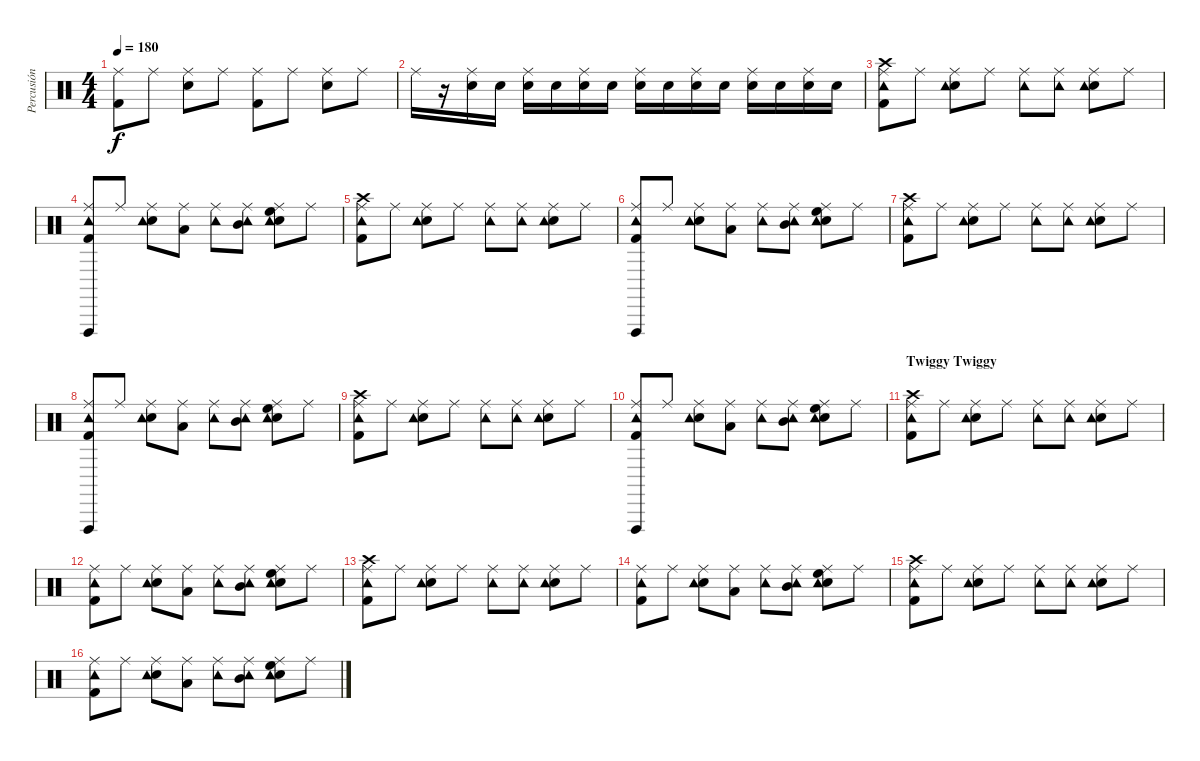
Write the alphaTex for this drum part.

\track ("Percusión" "Percusión") {instrument percussion}
\staff {score}
\articulation defaults
\ts (4 4)
\tempo 180
\clef neutral
\ks c
("Kick (hit) 2" "Ride (middle)").8{dy f} "Ride (middle)".8 ("Electric Snare (hit)" "Ride (middle)").8 "Ride (middle)".8 ("Kick (hit) 2" "Ride (middle)").8 "Ride (middle)".8 ("Electric Snare (hit)" "Ride (middle)").8 "Ride (middle)".8 |
"Ride (middle)".16 r.16 ("Ride (middle)" "Electric Snare (hit)").16 "Electric Snare (hit)".16 ("Ride (middle)" "Electric Snare (hit)").16 "Electric Snare (hit)".16 ("Ride (middle)" "Electric Snare (hit)").16 "Electric Snare (hit)".16 ("Ride (middle)" "Electric Snare (hit)").16 "Electric Snare (hit)".16 ("Ride (middle)" "Electric Snare (hit)").16 "Electric Snare (hit)".16 ("Ride (middle)" "Electric Snare (hit)").16 "Electric Snare (hit)".16 ("Ride (middle)" "Electric Snare (hit)").16 "Electric Snare (hit)".16 |
("Crash high (hit)" "Ride (middle)" "Kick (hit) 2" "Tambourine (hit)").8 "Ride (middle)".8 ("Electric Snare (hit)" "Ride (middle)" "Tambourine (hit)").8 "Ride (middle)".8 ("Ride (middle)" "Tambourine (hit)").8 ("Ride (middle)" "Tambourine (hit)").8 ("Electric Snare (hit)" "Ride (middle)" "Tambourine (hit)").8 "Ride (middle)".8 |
("Kick (hit) 2" "Tambourine (hit)" "Ride (middle)" "Vibraslap (hit)").8 "Ride (middle)".8 ("Electric Snare (hit)" "Ride (middle)" "Tambourine (hit)").8 ("Ride (middle)" "Low Tom (hit)").8 ("Ride (middle)" "Tambourine (hit)").8 ("Ride (middle)" "Tambourine (hit)" "Mid Tom (hit)").8 ("Electric Snare (hit)" "Ride (middle)" "Tambourine (hit)" "High Floor Tom (hit)").8 "Ride (middle)".8 |
("Crash high (hit)" "Ride (middle)" "Kick (hit) 2" "Tambourine (hit)").8 "Ride (middle)".8 ("Electric Snare (hit)" "Ride (middle)" "Tambourine (hit)").8 "Ride (middle)".8 ("Ride (middle)" "Tambourine (hit)").8 ("Ride (middle)" "Tambourine (hit)").8 ("Electric Snare (hit)" "Ride (middle)" "Tambourine (hit)").8 "Ride (middle)".8 |
("Kick (hit) 2" "Tambourine (hit)" "Ride (middle)" "Vibraslap (hit)").8 "Ride (middle)".8 ("Electric Snare (hit)" "Ride (middle)" "Tambourine (hit)").8 ("Ride (middle)" "Low Tom (hit)").8 ("Ride (middle)" "Tambourine (hit)").8 ("Ride (middle)" "Tambourine (hit)" "Mid Tom (hit)").8 ("Electric Snare (hit)" "Ride (middle)" "Tambourine (hit)" "High Floor Tom (hit)").8 "Ride (middle)".8 |
("Crash high (hit)" "Ride (middle)" "Kick (hit) 2" "Tambourine (hit)").8 "Ride (middle)".8 ("Electric Snare (hit)" "Ride (middle)" "Tambourine (hit)").8 "Ride (middle)".8 ("Ride (middle)" "Tambourine (hit)").8 ("Ride (middle)" "Tambourine (hit)").8 ("Electric Snare (hit)" "Ride (middle)" "Tambourine (hit)").8 "Ride (middle)".8 |
("Kick (hit) 2" "Tambourine (hit)" "Ride (middle)" "Vibraslap (hit)").8 "Ride (middle)".8 ("Electric Snare (hit)" "Ride (middle)" "Tambourine (hit)").8 ("Ride (middle)" "Low Tom (hit)").8 ("Ride (middle)" "Tambourine (hit)").8 ("Ride (middle)" "Tambourine (hit)" "Mid Tom (hit)").8 ("Electric Snare (hit)" "Ride (middle)" "Tambourine (hit)" "High Floor Tom (hit)").8 "Ride (middle)".8 |
("Crash high (hit)" "Ride (middle)" "Kick (hit) 2" "Tambourine (hit)").8 "Ride (middle)".8 ("Electric Snare (hit)" "Ride (middle)" "Tambourine (hit)").8 "Ride (middle)".8 ("Ride (middle)" "Tambourine (hit)").8 ("Ride (middle)" "Tambourine (hit)").8 ("Electric Snare (hit)" "Ride (middle)" "Tambourine (hit)").8 "Ride (middle)".8 |
("Kick (hit) 2" "Tambourine (hit)" "Ride (middle)" "Vibraslap (hit)").8 "Ride (middle)".8 ("Electric Snare (hit)" "Ride (middle)" "Tambourine (hit)").8 ("Ride (middle)" "Low Tom (hit)").8 ("Ride (middle)" "Tambourine (hit)").8 ("Ride (middle)" "Tambourine (hit)" "Mid Tom (hit)").8 ("Electric Snare (hit)" "Ride (middle)" "Tambourine (hit)" "High Floor Tom (hit)").8 "Ride (middle)".8 |
\section ("" "Twiggy Twiggy")
("Crash high (hit)" "Ride (middle)" "Kick (hit) 2" "Tambourine (hit)").8 "Ride (middle)".8 ("Electric Snare (hit)" "Ride (middle)" "Tambourine (hit)").8 "Ride (middle)".8 ("Ride (middle)" "Tambourine (hit)").8 ("Ride (middle)" "Tambourine (hit)").8 ("Electric Snare (hit)" "Ride (middle)" "Tambourine (hit)").8 "Ride (middle)".8 |
("Kick (hit) 2" "Tambourine (hit)" "Ride (middle)").8 "Ride (middle)".8 ("Electric Snare (hit)" "Ride (middle)" "Tambourine (hit)").8 ("Ride (middle)" "Low Tom (hit)").8 ("Ride (middle)" "Tambourine (hit)").8 ("Ride (middle)" "Tambourine (hit)" "Mid Tom (hit)").8 ("Electric Snare (hit)" "Ride (middle)" "Tambourine (hit)" "High Floor Tom (hit)").8 "Ride (middle)".8 |
("Crash high (hit)" "Ride (middle)" "Kick (hit) 2" "Tambourine (hit)").8 "Ride (middle)".8 ("Electric Snare (hit)" "Ride (middle)" "Tambourine (hit)").8 "Ride (middle)".8 ("Ride (middle)" "Tambourine (hit)").8 ("Ride (middle)" "Tambourine (hit)").8 ("Electric Snare (hit)" "Ride (middle)" "Tambourine (hit)").8 "Ride (middle)".8 |
("Kick (hit) 2" "Tambourine (hit)" "Ride (middle)").8 "Ride (middle)".8 ("Electric Snare (hit)" "Ride (middle)" "Tambourine (hit)").8 ("Ride (middle)" "Low Tom (hit)").8 ("Ride (middle)" "Tambourine (hit)").8 ("Ride (middle)" "Tambourine (hit)" "Mid Tom (hit)").8 ("Electric Snare (hit)" "Ride (middle)" "Tambourine (hit)" "High Floor Tom (hit)").8 "Ride (middle)".8 |
("Crash high (hit)" "Ride (middle)" "Kick (hit) 2" "Tambourine (hit)").8 "Ride (middle)".8 ("Electric Snare (hit)" "Ride (middle)" "Tambourine (hit)").8 "Ride (middle)".8 ("Ride (middle)" "Tambourine (hit)").8 ("Ride (middle)" "Tambourine (hit)").8 ("Electric Snare (hit)" "Ride (middle)" "Tambourine (hit)").8 "Ride (middle)".8 |
("Kick (hit) 2" "Tambourine (hit)" "Ride (middle)").8 "Ride (middle)".8 ("Electric Snare (hit)" "Ride (middle)" "Tambourine (hit)").8 ("Ride (middle)" "Low Tom (hit)").8 ("Ride (middle)" "Tambourine (hit)").8 ("Ride (middle)" "Tambourine (hit)" "Mid Tom (hit)").8 ("Electric Snare (hit)" "Ride (middle)" "Tambourine (hit)" "High Floor Tom (hit)").8 "Ride (middle)".8
